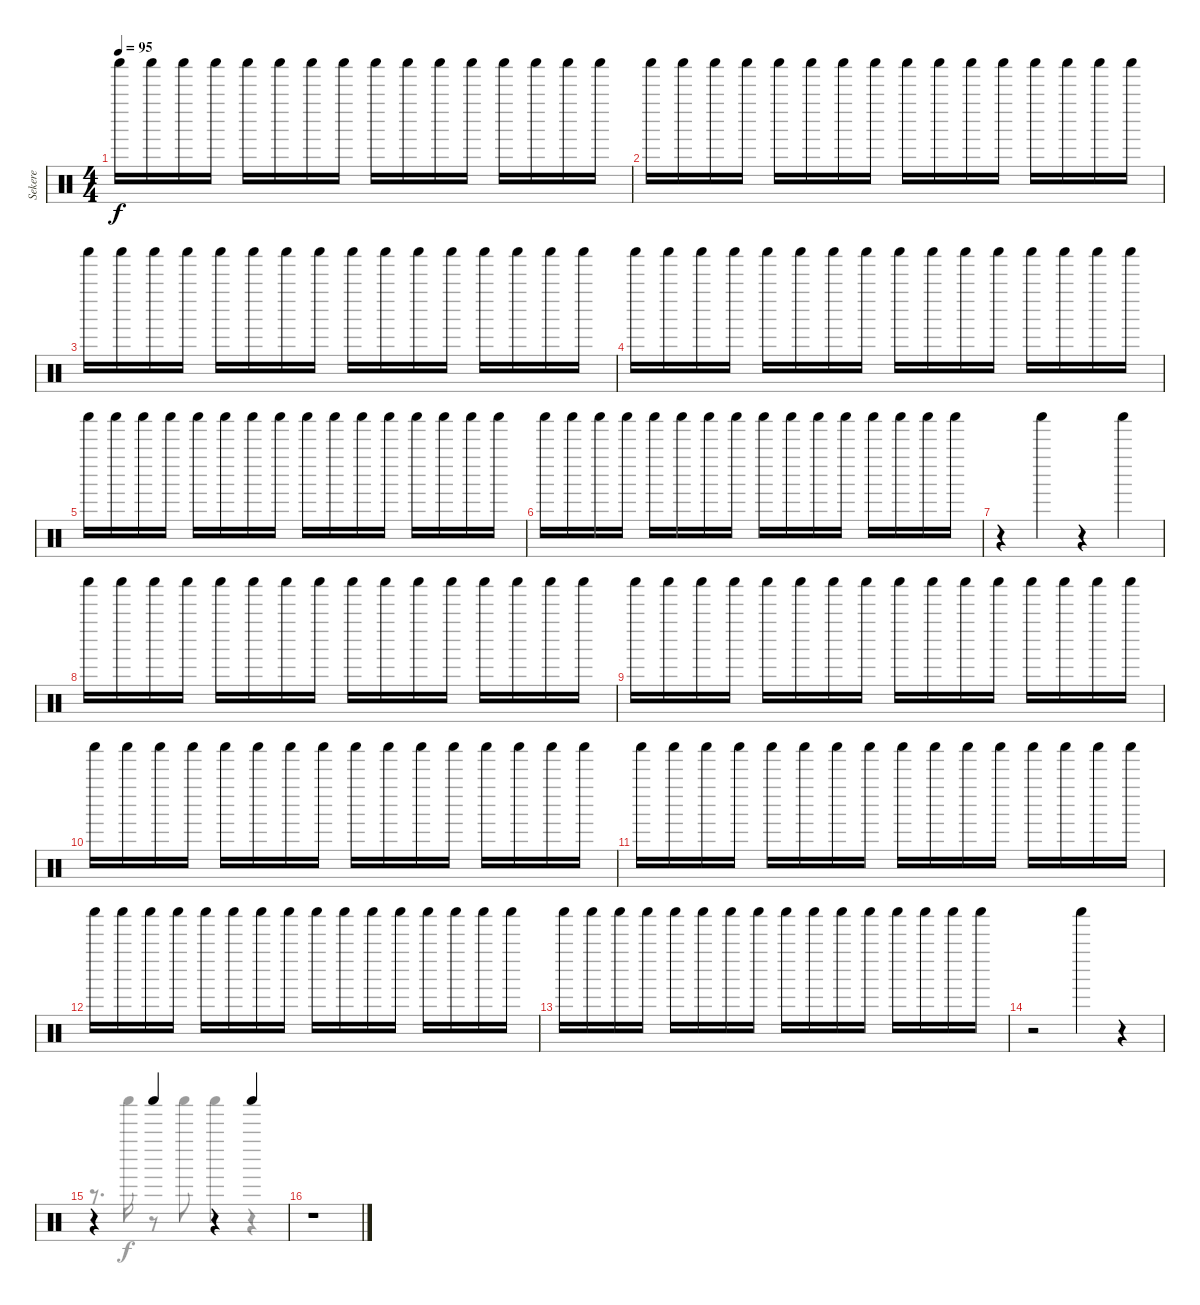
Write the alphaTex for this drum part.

\track ("Sekere" "Sekere") {instrument percussion}
\staff {score}
\articulation defaults
\voice
\ts (4 4)
\tempo 95
\clef neutral
\ks c "Shaker (hit)".16{dy f} "Shaker (hit)".16 "Shaker (hit)".16 "Shaker (hit)".16 "Shaker (hit)".16 "Shaker (hit)".16 "Shaker (hit)".16 "Shaker (hit)".16 "Shaker (hit)".16 "Shaker (hit)".16 "Shaker (hit)".16 "Shaker (hit)".16 "Shaker (hit)".16 "Shaker (hit)".16 "Shaker (hit)".16 "Shaker (hit)".16
|
"Shaker (hit)".16 "Shaker (hit)".16 "Shaker (hit)".16 "Shaker (hit)".16 "Shaker (hit)".16 "Shaker (hit)".16 "Shaker (hit)".16 "Shaker (hit)".16 "Shaker (hit)".16 "Shaker (hit)".16 "Shaker (hit)".16 "Shaker (hit)".16 "Shaker (hit)".16 "Shaker (hit)".16 "Shaker (hit)".16 "Shaker (hit)".16 |
"Shaker (hit)".16 "Shaker (hit)".16 "Shaker (hit)".16 "Shaker (hit)".16 "Shaker (hit)".16 "Shaker (hit)".16 "Shaker (hit)".16 "Shaker (hit)".16 "Shaker (hit)".16 "Shaker (hit)".16 "Shaker (hit)".16 "Shaker (hit)".16 "Shaker (hit)".16 "Shaker (hit)".16 "Shaker (hit)".16 "Shaker (hit)".16 |
"Shaker (hit)".16 "Shaker (hit)".16 "Shaker (hit)".16 "Shaker (hit)".16 "Shaker (hit)".16 "Shaker (hit)".16 "Shaker (hit)".16 "Shaker (hit)".16 "Shaker (hit)".16 "Shaker (hit)".16 "Shaker (hit)".16 "Shaker (hit)".16 "Shaker (hit)".16 "Shaker (hit)".16 "Shaker (hit)".16 "Shaker (hit)".16 |
"Shaker (hit)".16 "Shaker (hit)".16 "Shaker (hit)".16 "Shaker (hit)".16 "Shaker (hit)".16 "Shaker (hit)".16 "Shaker (hit)".16 "Shaker (hit)".16 "Shaker (hit)".16 "Shaker (hit)".16 "Shaker (hit)".16 "Shaker (hit)".16 "Shaker (hit)".16 "Shaker (hit)".16 "Shaker (hit)".16 "Shaker (hit)".16 |
"Shaker (hit)".16 "Shaker (hit)".16 "Shaker (hit)".16 "Shaker (hit)".16 "Shaker (hit)".16 "Shaker (hit)".16 "Shaker (hit)".16 "Shaker (hit)".16 "Shaker (hit)".16 "Shaker (hit)".16 "Shaker (hit)".16 "Shaker (hit)".16 "Shaker (hit)".16 "Shaker (hit)".16 "Shaker (hit)".16 "Shaker (hit)".16 |
r.4 "Shaker (hit)".4 r.4 "Shaker (hit)".4 |
"Shaker (hit)".16 "Shaker (hit)".16 "Shaker (hit)".16 "Shaker (hit)".16 "Shaker (hit)".16 "Shaker (hit)".16 "Shaker (hit)".16 "Shaker (hit)".16 "Shaker (hit)".16 "Shaker (hit)".16 "Shaker (hit)".16 "Shaker (hit)".16 "Shaker (hit)".16 "Shaker (hit)".16 "Shaker (hit)".16 "Shaker (hit)".16 |
"Shaker (hit)".16 "Shaker (hit)".16 "Shaker (hit)".16 "Shaker (hit)".16 "Shaker (hit)".16 "Shaker (hit)".16 "Shaker (hit)".16 "Shaker (hit)".16 "Shaker (hit)".16 "Shaker (hit)".16 "Shaker (hit)".16 "Shaker (hit)".16 "Shaker (hit)".16 "Shaker (hit)".16 "Shaker (hit)".16 "Shaker (hit)".16 |
"Shaker (hit)".16 "Shaker (hit)".16 "Shaker (hit)".16 "Shaker (hit)".16 "Shaker (hit)".16 "Shaker (hit)".16 "Shaker (hit)".16 "Shaker (hit)".16 "Shaker (hit)".16 "Shaker (hit)".16 "Shaker (hit)".16 "Shaker (hit)".16 "Shaker (hit)".16 "Shaker (hit)".16 "Shaker (hit)".16 "Shaker (hit)".16 |
"Shaker (hit)".16 "Shaker (hit)".16 "Shaker (hit)".16 "Shaker (hit)".16 "Shaker (hit)".16 "Shaker (hit)".16 "Shaker (hit)".16 "Shaker (hit)".16 "Shaker (hit)".16 "Shaker (hit)".16 "Shaker (hit)".16 "Shaker (hit)".16 "Shaker (hit)".16 "Shaker (hit)".16 "Shaker (hit)".16 "Shaker (hit)".16 |
"Shaker (hit)".16 "Shaker (hit)".16 "Shaker (hit)".16 "Shaker (hit)".16 "Shaker (hit)".16 "Shaker (hit)".16 "Shaker (hit)".16 "Shaker (hit)".16 "Shaker (hit)".16 "Shaker (hit)".16 "Shaker (hit)".16 "Shaker (hit)".16 "Shaker (hit)".16 "Shaker (hit)".16 "Shaker (hit)".16 "Shaker (hit)".16 |
"Shaker (hit)".16 "Shaker (hit)".16 "Shaker (hit)".16 "Shaker (hit)".16 "Shaker (hit)".16 "Shaker (hit)".16 "Shaker (hit)".16 "Shaker (hit)".16 "Shaker (hit)".16 "Shaker (hit)".16 "Shaker (hit)".16 "Shaker (hit)".16 "Shaker (hit)".16 "Shaker (hit)".16 "Shaker (hit)".16 "Shaker (hit)".16 |
r.2 "Shaker (hit)".4 r.4 |
r.4 "Shaker (hit)".4 r.4 "Shaker (hit)".4 |
r.1
\voice
\clef neutral
\ottava regular
\simile none
\ks c
|
|
|
|
|
|
|
|
|
|
|
|
|
|
r.8{d} "Shaker (hit)".16 r.8 "Shaker (hit)".8 "Shaker (hit)".4 r.4 |
